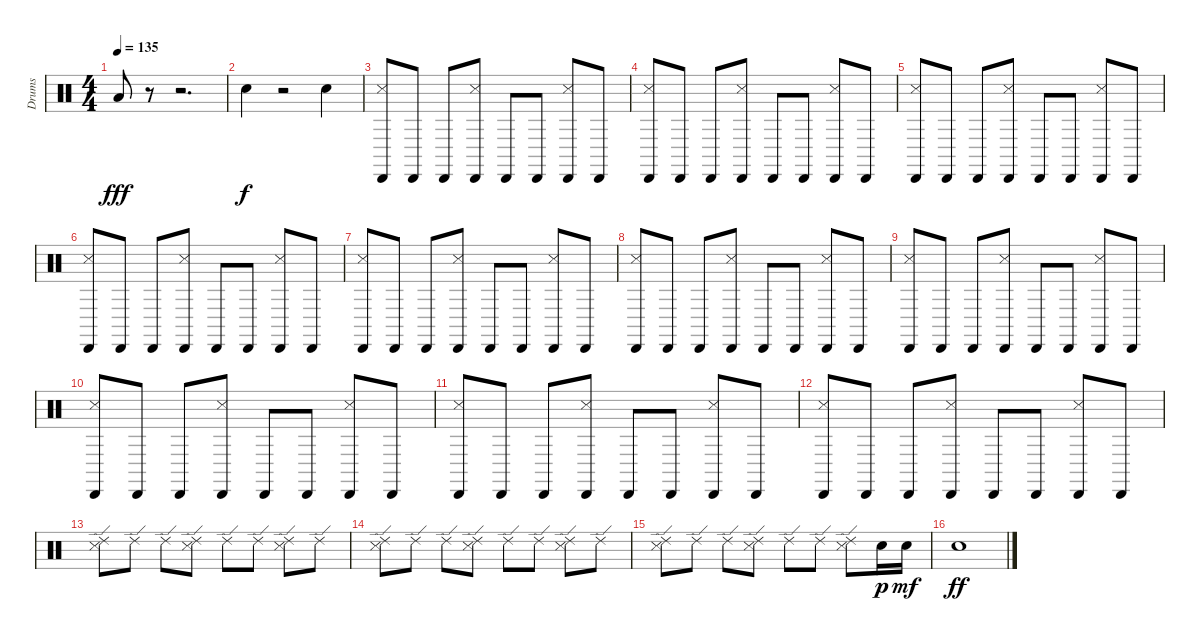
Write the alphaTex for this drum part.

\track ("Drums" "Drums") {instrument percussion}
\staff {score}
\articulation defaults
\ts (4 4)
\tempo 135
\clef neutral
\ks c "Low Floor Tom (hit)".8{dy fff}
r.8 r.2{d} |
"Electric Snare (hit)".4{dy f} r.2 "Electric Snare (hit)".4 |
("Cabasa (hit)" "Snare (side stick) 3").8 "Cabasa (hit)".8 "Cabasa (hit)".8 ("Cabasa (hit)" "Snare (side stick) 3").8 "Cabasa (hit)".8 "Cabasa (hit)".8 ("Cabasa (hit)" "Snare (side stick) 3").8 "Cabasa (hit)".8 |
("Cabasa (hit)" "Snare (side stick) 3").8 "Cabasa (hit)".8 "Cabasa (hit)".8 ("Cabasa (hit)" "Snare (side stick) 3").8 "Cabasa (hit)".8 "Cabasa (hit)".8 ("Cabasa (hit)" "Snare (side stick) 3").8 "Cabasa (hit)".8 |
("Cabasa (hit)" "Snare (side stick) 3").8 "Cabasa (hit)".8 "Cabasa (hit)".8 ("Cabasa (hit)" "Snare (side stick) 3").8 "Cabasa (hit)".8 "Cabasa (hit)".8 ("Cabasa (hit)" "Snare (side stick) 3").8 "Cabasa (hit)".8 |
("Cabasa (hit)" "Snare (side stick) 3").8 "Cabasa (hit)".8 "Cabasa (hit)".8 ("Cabasa (hit)" "Snare (side stick) 3").8 "Cabasa (hit)".8 "Cabasa (hit)".8 ("Cabasa (hit)" "Snare (side stick) 3").8 "Cabasa (hit)".8 |
("Cabasa (hit)" "Snare (side stick) 3").8 "Cabasa (hit)".8 "Cabasa (hit)".8 ("Cabasa (hit)" "Snare (side stick) 3").8 "Cabasa (hit)".8 "Cabasa (hit)".8 ("Cabasa (hit)" "Snare (side stick) 3").8 "Cabasa (hit)".8 |
("Cabasa (hit)" "Snare (side stick) 3").8 "Cabasa (hit)".8 "Cabasa (hit)".8 ("Cabasa (hit)" "Snare (side stick) 3").8 "Cabasa (hit)".8 "Cabasa (hit)".8 ("Cabasa (hit)" "Snare (side stick) 3").8 "Cabasa (hit)".8 |
("Cabasa (hit)" "Snare (side stick) 3").8 "Cabasa (hit)".8 "Cabasa (hit)".8 ("Cabasa (hit)" "Snare (side stick) 3").8 "Cabasa (hit)".8 "Cabasa (hit)".8 ("Cabasa (hit)" "Snare (side stick) 3").8 "Cabasa (hit)".8 |
("Cabasa (hit)" "Snare (side stick) 3").8 "Cabasa (hit)".8 "Cabasa (hit)".8 ("Cabasa (hit)" "Snare (side stick) 3").8 "Cabasa (hit)".8 "Cabasa (hit)".8 ("Cabasa (hit)" "Snare (side stick) 3").8 "Cabasa (hit)".8 |
("Cabasa (hit)" "Snare (side stick) 3").8 "Cabasa (hit)".8 "Cabasa (hit)".8 ("Cabasa (hit)" "Snare (side stick) 3").8 "Cabasa (hit)".8 "Cabasa (hit)".8 ("Cabasa (hit)" "Snare (side stick) 3").8 "Cabasa (hit)".8 |
("Cabasa (hit)" "Snare (side stick) 3").8 "Cabasa (hit)".8 "Cabasa (hit)".8 ("Cabasa (hit)" "Snare (side stick) 3").8 "Cabasa (hit)".8 "Cabasa (hit)".8 ("Cabasa (hit)" "Snare (side stick) 3").8 "Cabasa (hit)".8 |
("Ride (edge) 2" "Snare (side stick) 3").8 "Ride (edge) 2".8 "Ride (edge) 2".8 ("Ride (edge) 2" "Snare (side stick) 3").8 "Ride (edge) 2".8 "Ride (edge) 2".8 ("Ride (edge) 2" "Snare (side stick) 3").8 "Ride (edge) 2".8 |
("Ride (edge) 2" "Snare (side stick) 3").8 "Ride (edge) 2".8 "Ride (edge) 2".8 ("Ride (edge) 2" "Snare (side stick) 3").8 "Ride (edge) 2".8 "Ride (edge) 2".8 ("Ride (edge) 2" "Snare (side stick) 3").8 "Ride (edge) 2".8 |
("Ride (edge) 2" "Snare (side stick) 3").8 "Ride (edge) 2".8 "Ride (edge) 2".8 ("Ride (edge) 2" "Snare (side stick) 3").8 "Ride (edge) 2".8 "Ride (edge) 2".8 ("Ride (edge) 2" "Snare (side stick) 3").8 "Electric Snare (hit)".16{dy p} "Electric Snare (hit)".16{dy mf} |
"Electric Snare (hit)".1{dy ff}
